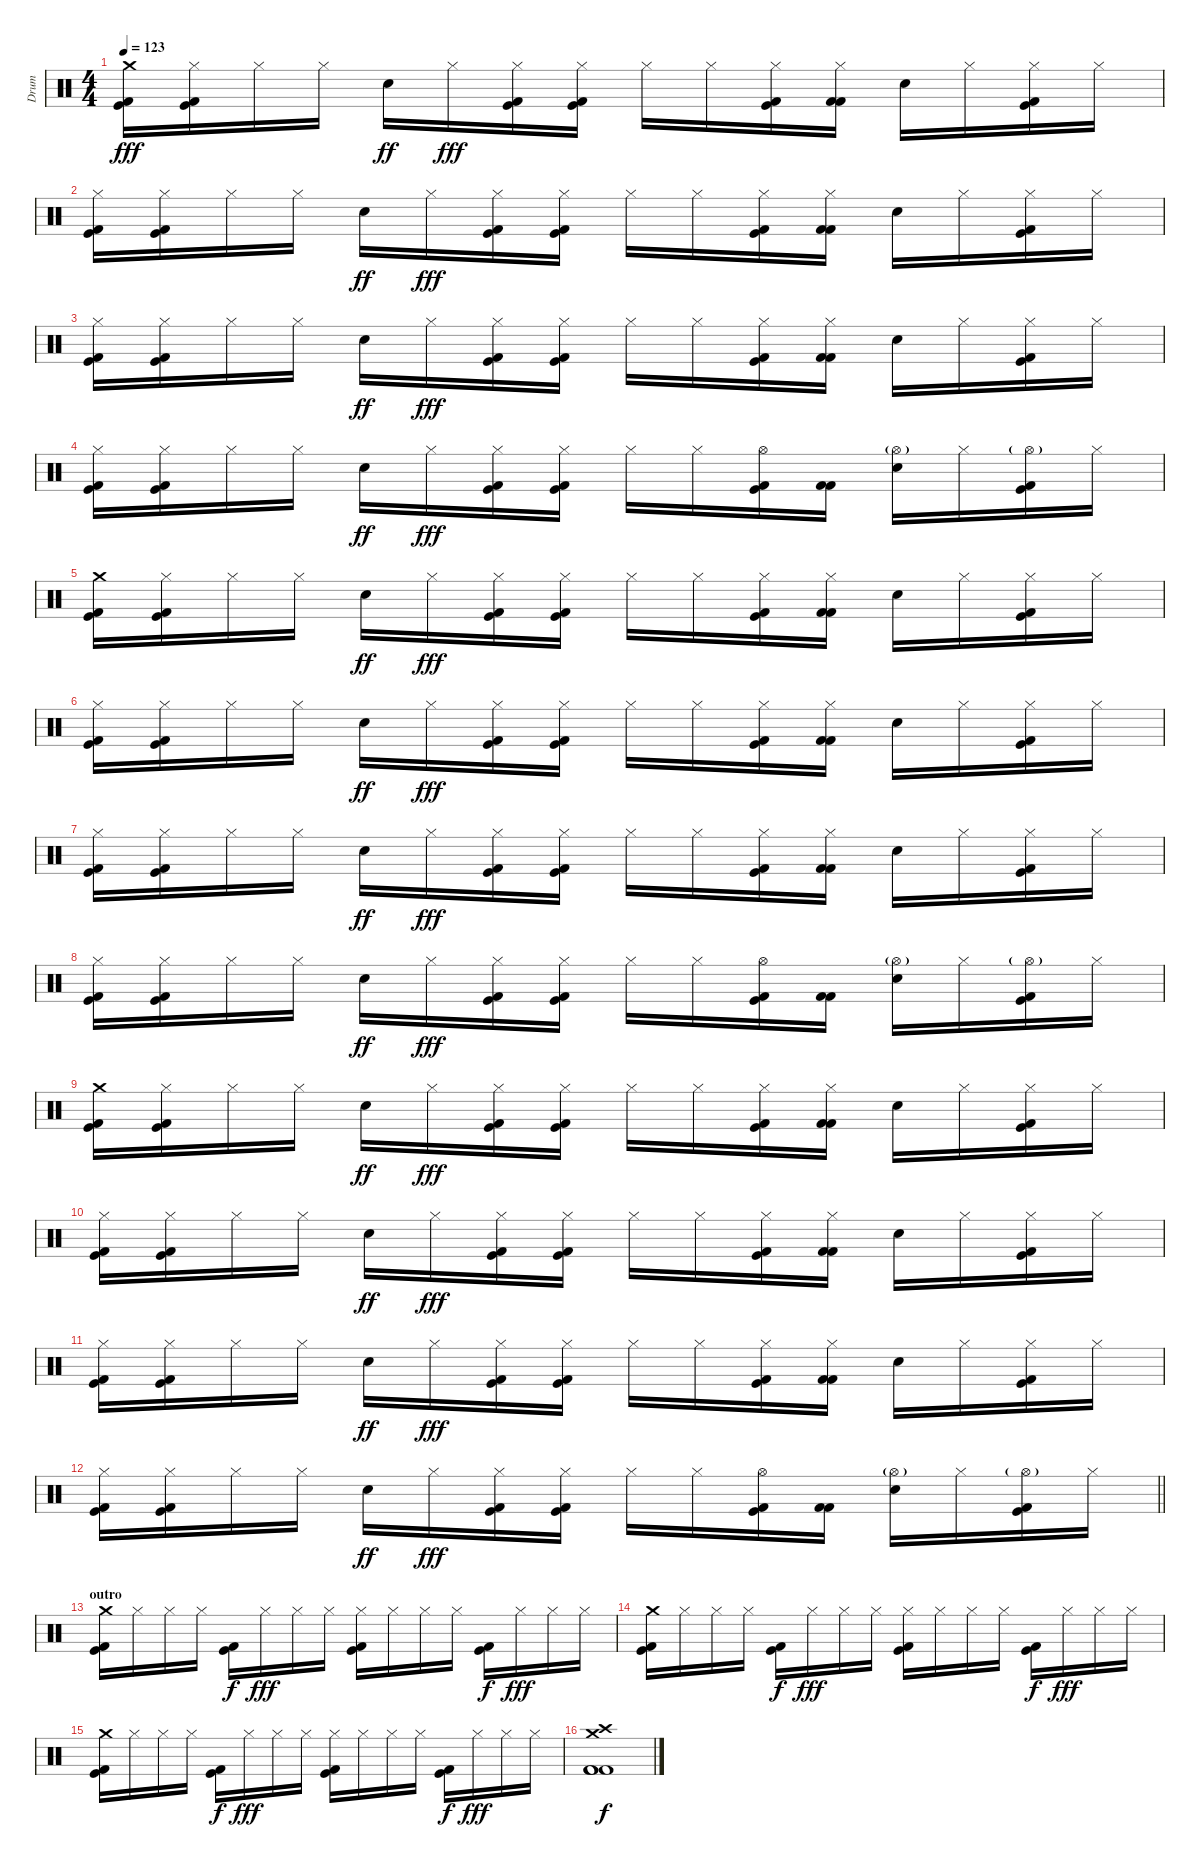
\track ("Drum" "Drum") {instrument percussion}
\staff {score}
\articulation defaults
\ts (4 4)
\tempo 123
\clef neutral
\ks c
("Crash medium (hit)" "Kick (hit)" "Kick (hit) 2").16{dy fff} ("Hi-Hat (closed)" "Kick (hit)" "Kick (hit) 2").16 "Hi-Hat (closed)".16 "Hi-Hat (closed)".16 "Electric Snare (hit)".16{dy ff} "Hi-Hat (closed)".16{dy fff} ("Hi-Hat (closed)" "Kick (hit)" "Kick (hit) 2").16 ("Hi-Hat (closed)" "Kick (hit)" "Kick (hit) 2").16 "Hi-Hat (closed)".16 "Hi-Hat (closed)".16 ("Hi-Hat (closed)" "Kick (hit)" "Kick (hit) 2").16 ("Hi-Hat (closed)" "Kick (hit) 2" "Kick (hit) 2").16 "Electric Snare (hit)".16 "Hi-Hat (closed)".16 ("Hi-Hat (closed)" "Kick (hit)" "Kick (hit) 2").16 "Hi-Hat (closed)".16 |
("Hi-Hat (closed)" "Kick (hit)" "Kick (hit) 2").16 ("Hi-Hat (closed)" "Kick (hit)" "Kick (hit) 2").16 "Hi-Hat (closed)".16 "Hi-Hat (closed)".16 "Electric Snare (hit)".16{dy ff} "Hi-Hat (closed)".16{dy fff} ("Hi-Hat (closed)" "Kick (hit)" "Kick (hit) 2").16 ("Hi-Hat (closed)" "Kick (hit)" "Kick (hit) 2").16 "Hi-Hat (closed)".16 "Hi-Hat (closed)".16 ("Hi-Hat (closed)" "Kick (hit)" "Kick (hit) 2").16 ("Hi-Hat (closed)" "Kick (hit) 2" "Kick (hit) 2").16 "Electric Snare (hit)".16 "Hi-Hat (closed)".16 ("Hi-Hat (closed)" "Kick (hit)" "Kick (hit) 2").16 "Hi-Hat (closed)".16 |
("Hi-Hat (closed)" "Kick (hit)" "Kick (hit) 2").16 ("Hi-Hat (closed)" "Kick (hit)" "Kick (hit) 2").16 "Hi-Hat (closed)".16 "Hi-Hat (closed)".16 "Electric Snare (hit)".16{dy ff} "Hi-Hat (closed)".16{dy fff} ("Hi-Hat (closed)" "Kick (hit)" "Kick (hit) 2").16 ("Hi-Hat (closed)" "Kick (hit)" "Kick (hit) 2").16 "Hi-Hat (closed)".16 "Hi-Hat (closed)".16 ("Hi-Hat (closed)" "Kick (hit)" "Kick (hit) 2").16 ("Hi-Hat (closed)" "Kick (hit) 2" "Kick (hit) 2").16 "Electric Snare (hit)".16 "Hi-Hat (closed)".16 ("Hi-Hat (closed)" "Kick (hit)" "Kick (hit) 2").16 "Hi-Hat (closed)".16 |
("Hi-Hat (closed)" "Kick (hit)" "Kick (hit) 2").16 ("Hi-Hat (closed)" "Kick (hit)" "Kick (hit) 2").16 "Hi-Hat (closed)".16 "Hi-Hat (closed)".16 "Electric Snare (hit)".16{dy ff} "Hi-Hat (closed)".16{dy fff} ("Hi-Hat (closed)" "Kick (hit)" "Kick (hit) 2").16 ("Hi-Hat (closed)" "Kick (hit)" "Kick (hit) 2").16 "Hi-Hat (closed)".16 "Hi-Hat (closed)".16 ("Hi-Hat (open)" "Kick (hit)" "Kick (hit) 2").16 ("Kick (hit) 2" "Kick (hit) 2").16 ("Hi-Hat (open)"{g} "Electric Snare (hit)").16 "Hi-Hat (closed)".16 ("Hi-Hat (open)"{g} "Kick (hit)" "Kick (hit) 2").16 "Hi-Hat (closed)".16 |
("Crash medium (hit)" "Kick (hit)" "Kick (hit) 2").16 ("Hi-Hat (closed)" "Kick (hit)" "Kick (hit) 2").16 "Hi-Hat (closed)".16 "Hi-Hat (closed)".16 "Electric Snare (hit)".16{dy ff} "Hi-Hat (closed)".16{dy fff} ("Hi-Hat (closed)" "Kick (hit)" "Kick (hit) 2").16 ("Hi-Hat (closed)" "Kick (hit)" "Kick (hit) 2").16 "Hi-Hat (closed)".16 "Hi-Hat (closed)".16 ("Hi-Hat (closed)" "Kick (hit)" "Kick (hit) 2").16 ("Hi-Hat (closed)" "Kick (hit) 2" "Kick (hit) 2").16 "Electric Snare (hit)".16 "Hi-Hat (closed)".16 ("Hi-Hat (closed)" "Kick (hit)" "Kick (hit) 2").16 "Hi-Hat (closed)".16 |
("Hi-Hat (closed)" "Kick (hit)" "Kick (hit) 2").16 ("Hi-Hat (closed)" "Kick (hit)" "Kick (hit) 2").16 "Hi-Hat (closed)".16 "Hi-Hat (closed)".16 "Electric Snare (hit)".16{dy ff} "Hi-Hat (closed)".16{dy fff} ("Hi-Hat (closed)" "Kick (hit)" "Kick (hit) 2").16 ("Hi-Hat (closed)" "Kick (hit)" "Kick (hit) 2").16 "Hi-Hat (closed)".16 "Hi-Hat (closed)".16 ("Hi-Hat (closed)" "Kick (hit)" "Kick (hit) 2").16 ("Hi-Hat (closed)" "Kick (hit) 2" "Kick (hit) 2").16 "Electric Snare (hit)".16 "Hi-Hat (closed)".16 ("Hi-Hat (closed)" "Kick (hit)" "Kick (hit) 2").16 "Hi-Hat (closed)".16 |
("Hi-Hat (closed)" "Kick (hit)" "Kick (hit) 2").16 ("Hi-Hat (closed)" "Kick (hit)" "Kick (hit) 2").16 "Hi-Hat (closed)".16 "Hi-Hat (closed)".16 "Electric Snare (hit)".16{dy ff} "Hi-Hat (closed)".16{dy fff} ("Hi-Hat (closed)" "Kick (hit)" "Kick (hit) 2").16 ("Hi-Hat (closed)" "Kick (hit)" "Kick (hit) 2").16 "Hi-Hat (closed)".16 "Hi-Hat (closed)".16 ("Hi-Hat (closed)" "Kick (hit)" "Kick (hit) 2").16 ("Hi-Hat (closed)" "Kick (hit) 2" "Kick (hit) 2").16 "Electric Snare (hit)".16 "Hi-Hat (closed)".16 ("Hi-Hat (closed)" "Kick (hit)" "Kick (hit) 2").16 "Hi-Hat (closed)".16 |
("Hi-Hat (closed)" "Kick (hit)" "Kick (hit) 2").16 ("Hi-Hat (closed)" "Kick (hit)" "Kick (hit) 2").16 "Hi-Hat (closed)".16 "Hi-Hat (closed)".16 "Electric Snare (hit)".16{dy ff} "Hi-Hat (closed)".16{dy fff} ("Hi-Hat (closed)" "Kick (hit)" "Kick (hit) 2").16 ("Hi-Hat (closed)" "Kick (hit)" "Kick (hit) 2").16 "Hi-Hat (closed)".16 "Hi-Hat (closed)".16 ("Hi-Hat (open)" "Kick (hit)" "Kick (hit) 2").16 ("Kick (hit) 2" "Kick (hit) 2").16 ("Hi-Hat (open)"{g} "Electric Snare (hit)").16 "Hi-Hat (closed)".16 ("Hi-Hat (open)"{g} "Kick (hit)" "Kick (hit) 2").16 "Hi-Hat (closed)".16 |
("Crash medium (hit)" "Kick (hit)" "Kick (hit) 2").16 ("Hi-Hat (closed)" "Kick (hit)" "Kick (hit) 2").16 "Hi-Hat (closed)".16 "Hi-Hat (closed)".16 "Electric Snare (hit)".16{dy ff} "Hi-Hat (closed)".16{dy fff} ("Hi-Hat (closed)" "Kick (hit)" "Kick (hit) 2").16 ("Hi-Hat (closed)" "Kick (hit)" "Kick (hit) 2").16 "Hi-Hat (closed)".16 "Hi-Hat (closed)".16 ("Hi-Hat (closed)" "Kick (hit)" "Kick (hit) 2").16 ("Hi-Hat (closed)" "Kick (hit) 2" "Kick (hit) 2").16 "Electric Snare (hit)".16 "Hi-Hat (closed)".16 ("Hi-Hat (closed)" "Kick (hit)" "Kick (hit) 2").16 "Hi-Hat (closed)".16 |
("Hi-Hat (closed)" "Kick (hit)" "Kick (hit) 2").16 ("Hi-Hat (closed)" "Kick (hit)" "Kick (hit) 2").16 "Hi-Hat (closed)".16 "Hi-Hat (closed)".16 "Electric Snare (hit)".16{dy ff} "Hi-Hat (closed)".16{dy fff} ("Hi-Hat (closed)" "Kick (hit)" "Kick (hit) 2").16 ("Hi-Hat (closed)" "Kick (hit)" "Kick (hit) 2").16 "Hi-Hat (closed)".16 "Hi-Hat (closed)".16 ("Hi-Hat (closed)" "Kick (hit)" "Kick (hit) 2").16 ("Hi-Hat (closed)" "Kick (hit) 2" "Kick (hit) 2").16 "Electric Snare (hit)".16 "Hi-Hat (closed)".16 ("Hi-Hat (closed)" "Kick (hit)" "Kick (hit) 2").16 "Hi-Hat (closed)".16 |
("Hi-Hat (closed)" "Kick (hit)" "Kick (hit) 2").16 ("Hi-Hat (closed)" "Kick (hit)" "Kick (hit) 2").16 "Hi-Hat (closed)".16 "Hi-Hat (closed)".16 "Electric Snare (hit)".16{dy ff} "Hi-Hat (closed)".16{dy fff} ("Hi-Hat (closed)" "Kick (hit)" "Kick (hit) 2").16 ("Hi-Hat (closed)" "Kick (hit)" "Kick (hit) 2").16 "Hi-Hat (closed)".16 "Hi-Hat (closed)".16 ("Hi-Hat (closed)" "Kick (hit)" "Kick (hit) 2").16 ("Hi-Hat (closed)" "Kick (hit) 2" "Kick (hit) 2").16 "Electric Snare (hit)".16 "Hi-Hat (closed)".16 ("Hi-Hat (closed)" "Kick (hit)" "Kick (hit) 2").16 "Hi-Hat (closed)".16 |
\barLineRight lightlight
("Hi-Hat (closed)" "Kick (hit)" "Kick (hit) 2").16 ("Hi-Hat (closed)" "Kick (hit)" "Kick (hit) 2").16 "Hi-Hat (closed)".16 "Hi-Hat (closed)".16 "Electric Snare (hit)".16{dy ff} "Hi-Hat (closed)".16{dy fff} ("Hi-Hat (closed)" "Kick (hit)" "Kick (hit) 2").16 ("Hi-Hat (closed)" "Kick (hit)" "Kick (hit) 2").16 "Hi-Hat (closed)".16 "Hi-Hat (closed)".16 ("Hi-Hat (open)" "Kick (hit)" "Kick (hit) 2").16 ("Kick (hit) 2" "Kick (hit) 2").16 ("Hi-Hat (open)"{g} "Electric Snare (hit)").16 "Hi-Hat (closed)".16 ("Hi-Hat (open)"{g} "Kick (hit)" "Kick (hit) 2").16 "Hi-Hat (closed)".16 |
\section ("" "outro")
("Crash medium (hit)" "Kick (hit)" "Kick (hit) 2").16 "Hi-Hat (closed)".16 "Hi-Hat (closed)".16 "Hi-Hat (closed)".16 ("Kick (hit)" "Kick (hit) 2").16{dy f} "Hi-Hat (closed)".16{dy fff} "Hi-Hat (closed)".16 "Hi-Hat (closed)".16 ("Hi-Hat (closed)" "Kick (hit)" "Kick (hit) 2").16 "Hi-Hat (closed)".16 "Hi-Hat (closed)".16 "Hi-Hat (closed)".16 ("Kick (hit)" "Kick (hit) 2").16{dy f} "Hi-Hat (closed)".16{dy fff} "Hi-Hat (closed)".16 "Hi-Hat (closed)".16 |
("Crash medium (hit)" "Kick (hit)" "Kick (hit) 2").16 "Hi-Hat (closed)".16 "Hi-Hat (closed)".16 "Hi-Hat (closed)".16 ("Kick (hit)" "Kick (hit) 2").16{dy f} "Hi-Hat (closed)".16{dy fff} "Hi-Hat (closed)".16 "Hi-Hat (closed)".16 ("Hi-Hat (closed)" "Kick (hit)" "Kick (hit) 2").16 "Hi-Hat (closed)".16 "Hi-Hat (closed)".16 "Hi-Hat (closed)".16 ("Kick (hit)" "Kick (hit) 2").16{dy f} "Hi-Hat (closed)".16{dy fff} "Hi-Hat (closed)".16 "Hi-Hat (closed)".16 |
("Crash medium (hit)" "Kick (hit)" "Kick (hit) 2").16 "Hi-Hat (closed)".16 "Hi-Hat (closed)".16 "Hi-Hat (closed)".16 ("Kick (hit)" "Kick (hit) 2").16{dy f} "Hi-Hat (closed)".16{dy fff} "Hi-Hat (closed)".16 "Hi-Hat (closed)".16 ("Hi-Hat (closed)" "Kick (hit)" "Kick (hit) 2").16 "Hi-Hat (closed)".16 "Hi-Hat (closed)".16 "Hi-Hat (closed)".16 ("Kick (hit)" "Kick (hit) 2").16{dy f} "Hi-Hat (closed)".16{dy fff} "Hi-Hat (closed)".16 "Hi-Hat (closed)".16 |
("Crash high (hit)" "Crash medium (hit)" "Kick (hit) 2" "Kick (hit) 2" "Kick (hit) 2").1{dy f}
